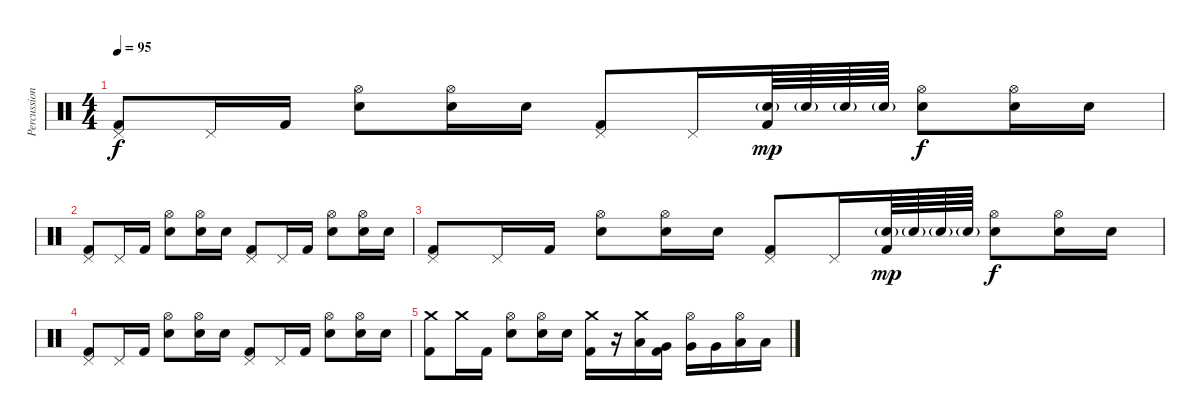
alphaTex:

\track ("Percussions" "Percussion") {instrument percussion}
\staff {score}
\articulation defaults
\ts (4 4)
\tempo 95
\clef neutral
\ks c
("Pedal Hi-Hat (hit)" "Kick (hit) 2").8{dy f} "Pedal Hi-Hat (hit)".16 "Kick (hit) 2".16 ("Hi-Hat (open)" "Electric Snare (hit)").8 ("Hi-Hat (open)" "Electric Snare (hit)").16 "Electric Snare (hit)".16 ("Pedal Hi-Hat (hit)" "Kick (hit) 2").8 "Pedal Hi-Hat (hit)".16 ("Electric Snare (hit)"{g} "Kick (hit) 2").64{dy mp} "Electric Snare (hit)"{g}.64 "Electric Snare (hit)"{g}.64 "Electric Snare (hit)"{g}.64 ("Hi-Hat (open)" "Electric Snare (hit)").8{dy f} ("Hi-Hat (open)" "Electric Snare (hit)").16 "Electric Snare (hit)".16 |
("Pedal Hi-Hat (hit)" "Kick (hit) 2").8{volume 0} "Pedal Hi-Hat (hit)".16 "Kick (hit) 2".16 ("Hi-Hat (open)" "Electric Snare (hit)").8 ("Hi-Hat (open)" "Electric Snare (hit)").16 "Electric Snare (hit)".16 ("Pedal Hi-Hat (hit)" "Kick (hit) 2").8 "Pedal Hi-Hat (hit)".16 "Kick (hit) 2".16 ("Hi-Hat (open)" "Electric Snare (hit)").8 ("Hi-Hat (open)" "Electric Snare (hit)").16 "Electric Snare (hit)".16 |
("Pedal Hi-Hat (hit)" "Kick (hit) 2").8 "Pedal Hi-Hat (hit)".16 "Kick (hit) 2".16 ("Hi-Hat (open)" "Electric Snare (hit)").8 ("Hi-Hat (open)" "Electric Snare (hit)").16 "Electric Snare (hit)".16 ("Pedal Hi-Hat (hit)" "Kick (hit) 2").8 "Pedal Hi-Hat (hit)".16 ("Electric Snare (hit)"{g} "Kick (hit) 2").64{dy mp} "Electric Snare (hit)"{g}.64 "Electric Snare (hit)"{g}.64 "Electric Snare (hit)"{g}.64 ("Hi-Hat (open)" "Electric Snare (hit)").8{dy f} ("Hi-Hat (open)" "Electric Snare (hit)").16 "Electric Snare (hit)".16 |
("Pedal Hi-Hat (hit)" "Kick (hit) 2").8 "Pedal Hi-Hat (hit)".16 "Kick (hit) 2".16 ("Hi-Hat (open)" "Electric Snare (hit)").8 ("Hi-Hat (open)" "Electric Snare (hit)").16 "Electric Snare (hit)".16 ("Pedal Hi-Hat (hit)" "Kick (hit) 2").8 "Pedal Hi-Hat (hit)".16 "Kick (hit) 2".16 ("Hi-Hat (open)" "Electric Snare (hit)").8 ("Hi-Hat (open)" "Electric Snare (hit)").16 "Electric Snare (hit)".16 |
("Crash medium (hit)" "Kick (hit) 2").8 "Crash medium (hit)".16 "Kick (hit) 2".16 ("Hi-Hat (open)" "Electric Snare (hit)").8 ("Hi-Hat (open)" "Electric Snare (hit)").16 "Electric Snare (hit)".16 ("Crash medium (hit)" "Kick (hit) 2").16 r.16 ("Crash medium (hit)" "Low Tom (hit)").16 ("Very Low Tom (hit)" "Kick (hit) 2").16 ("Hi-Hat (open)" "Very Low Tom (hit)").16 "Very Low Tom (hit)".16 ("Hi-Hat (open)" "Low Floor Tom (hit)").16 "Low Floor Tom (hit)".16
